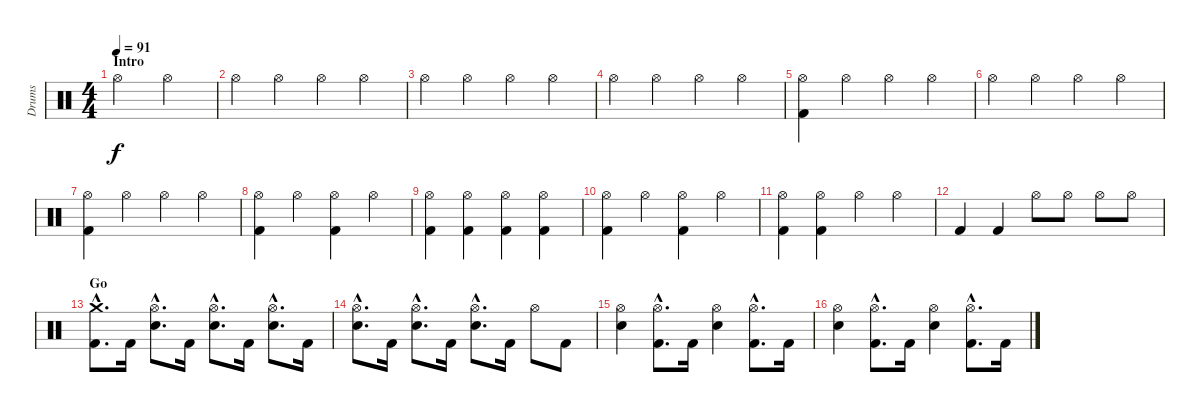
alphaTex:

\track ("Drums" "Drums") {instrument percussion}
\staff {score}
\articulation defaults
\ts (4 4)
\section ("" "Intro")
\tempo 91
\clef neutral
\ks c "Hi-Hat (open)".2{dy f} "Hi-Hat (open)".2
|
"Hi-Hat (open)".4 "Hi-Hat (open)".4 "Hi-Hat (open)".4 "Hi-Hat (open)".4 |
"Hi-Hat (open)".4 "Hi-Hat (open)".4 "Hi-Hat (open)".4 "Hi-Hat (open)".4 |
"Hi-Hat (open)".4 "Hi-Hat (open)".4 "Hi-Hat (open)".4 "Hi-Hat (open)".4 |
("Hi-Hat (open)" "Kick (hit) 2").4 "Hi-Hat (open)".4 "Hi-Hat (open)".4 "Hi-Hat (open)".4 |
"Hi-Hat (open)".4 "Hi-Hat (open)".4 "Hi-Hat (open)".4 "Hi-Hat (open)".4 |
("Hi-Hat (open)" "Kick (hit) 2").4 "Hi-Hat (open)".4 "Hi-Hat (open)".4 "Hi-Hat (open)".4 |
("Hi-Hat (open)" "Kick (hit) 2").4 "Hi-Hat (open)".4 ("Hi-Hat (open)" "Kick (hit) 2").4 "Hi-Hat (open)".4 |
("Hi-Hat (open)" "Kick (hit) 2").4 ("Hi-Hat (open)" "Kick (hit) 2").4 ("Hi-Hat (open)" "Kick (hit) 2").4 ("Hi-Hat (open)" "Kick (hit) 2").4 |
("Hi-Hat (open)" "Kick (hit) 2").4 "Hi-Hat (open)".4 ("Hi-Hat (open)" "Kick (hit) 2").4 "Hi-Hat (open)".4 |
("Hi-Hat (open)" "Kick (hit) 2").4 ("Hi-Hat (open)" "Kick (hit) 2").4 "Hi-Hat (open)".4 "Hi-Hat (open)".4 |
"Kick (hit) 2".4 "Kick (hit) 2".4 "Hi-Hat (open)".8 "Hi-Hat (open)".8 "Hi-Hat (open)".8 "Hi-Hat (open)".8 |
\section ("" "Go")
("Crash medium (hit)"{hac} "Kick (hit) 2"{hac}).8{d} "Kick (hit) 2".16 ("Hi-Hat (open)"{hac} "Snare (hit) 2"{hac}).8{d} "Kick (hit) 2".16 ("Hi-Hat (open)"{hac} "Snare (hit) 2"{hac}).8{d} "Kick (hit) 2".16 ("Hi-Hat (open)"{hac} "Snare (hit) 2"{hac}).8{d} "Kick (hit) 2".16 |
("Hi-Hat (open)"{hac} "Snare (hit) 2"{hac}).8{d} "Kick (hit) 2".16 ("Hi-Hat (open)"{hac} "Snare (hit) 2"{hac}).8{d} "Kick (hit) 2".16 ("Hi-Hat (open)"{hac} "Snare (hit) 2"{hac}).8{d} "Kick (hit) 2".16 "Hi-Hat (open)".8 "Kick (hit) 2".8 |
("Hi-Hat (open)" "Snare (hit) 2").4 ("Hi-Hat (open)"{hac} "Kick (hit) 2"{hac}).8{d} "Kick (hit) 2".16 ("Hi-Hat (open)" "Snare (hit) 2").4 ("Hi-Hat (open)"{hac} "Kick (hit) 2"{hac}).8{d} "Kick (hit) 2".16 |
("Hi-Hat (open)" "Snare (hit) 2").4 ("Hi-Hat (open)"{hac} "Kick (hit) 2"{hac}).8{d} "Kick (hit) 2".16 ("Hi-Hat (open)" "Snare (hit) 2").4 ("Hi-Hat (open)"{hac} "Kick (hit) 2"{hac}).8{d} "Kick (hit) 2".16
